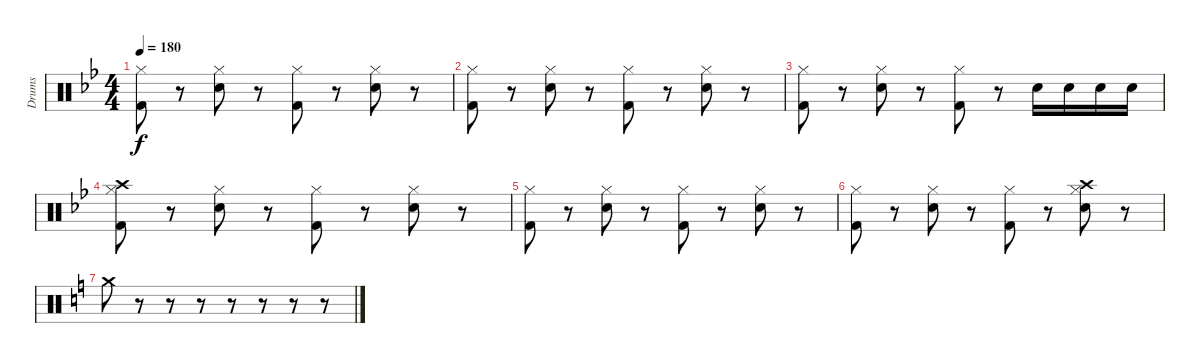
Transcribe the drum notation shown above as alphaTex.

\track ("Drums" "Drums") {instrument percussion}
\staff {score}
\articulation defaults
\ts (4 4)
\tempo 180
\clef neutral
\ks bb
("Hi-Hat (closed)" "Kick (hit) 2").8{dy f} r.8 ("Hi-Hat (closed)" "Electric Snare (hit)").8 r.8 ("Hi-Hat (closed)" "Kick (hit) 2").8 r.8 ("Hi-Hat (closed)" "Electric Snare (hit)").8 r.8 |
("Hi-Hat (closed)" "Kick (hit) 2").8 r.8 ("Hi-Hat (closed)" "Electric Snare (hit)").8 r.8 ("Hi-Hat (closed)" "Kick (hit) 2").8 r.8 ("Hi-Hat (closed)" "Electric Snare (hit)").8 r.8 |
("Hi-Hat (closed)" "Kick (hit) 2").8 r.8 ("Hi-Hat (closed)" "Electric Snare (hit)").8 r.8 ("Hi-Hat (closed)" "Kick (hit) 2").8 r.8 "Electric Snare (hit)".16 "Electric Snare (hit)".16 "Electric Snare (hit)".16 "Electric Snare (hit)".16 |
("Hi-Hat (closed)" "Kick (hit) 2" "Crash high (hit)").8 r.8 ("Hi-Hat (closed)" "Electric Snare (hit)").8 r.8 ("Hi-Hat (closed)" "Kick (hit) 2").8 r.8 ("Hi-Hat (closed)" "Electric Snare (hit)").8 r.8 |
("Hi-Hat (closed)" "Kick (hit) 2").8 r.8 ("Hi-Hat (closed)" "Electric Snare (hit)").8 r.8 ("Hi-Hat (closed)" "Kick (hit) 2").8 r.8 ("Hi-Hat (closed)" "Electric Snare (hit)").8 r.8 |
("Hi-Hat (closed)" "Kick (hit) 2").8 r.8 ("Hi-Hat (closed)" "Electric Snare (hit)").8 r.8 ("Hi-Hat (closed)" "Kick (hit) 2").8 r.8 ("Hi-Hat (closed)" "Electric Snare (hit)" "Crash high (hit)").8 r.8 |
\ks c "Crash medium (hit)".8
r.8 r.8 r.8 r.8 r.8 r.8 r.8
